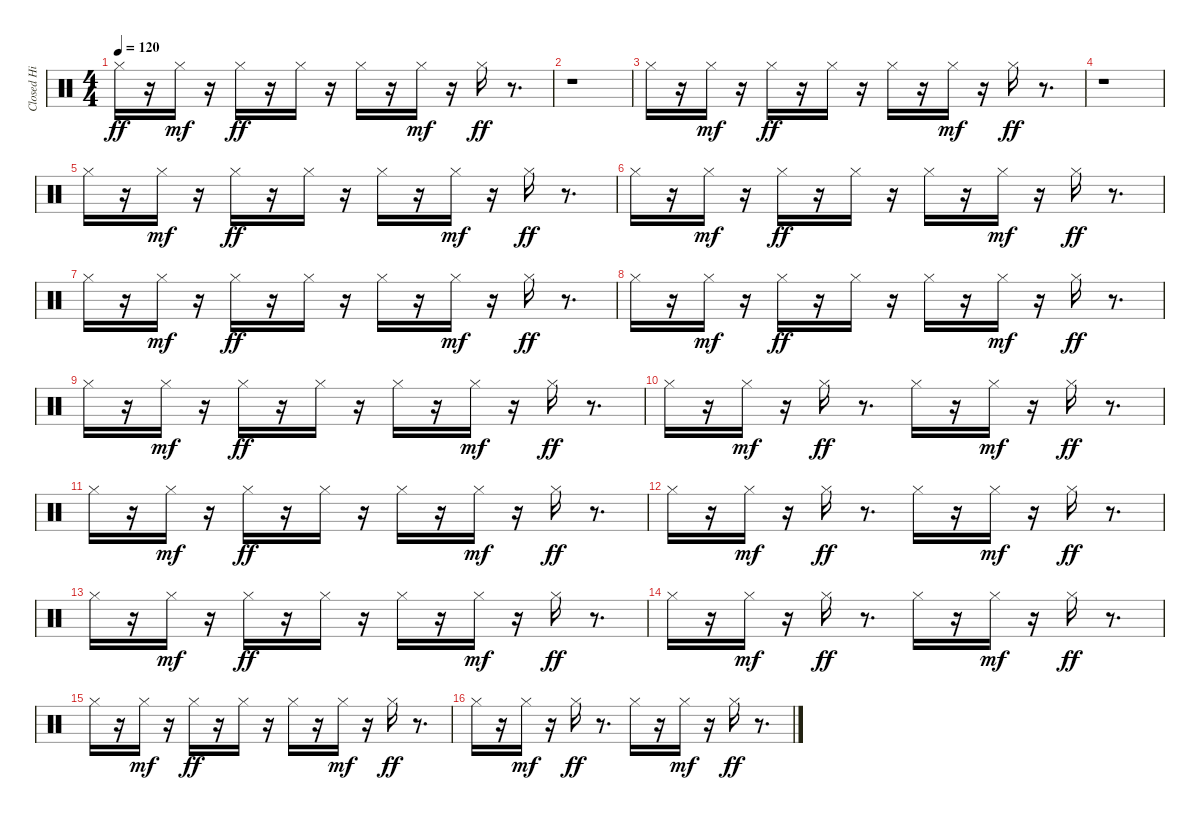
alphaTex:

\track ("Closed Hi Hat       " "Closed Hi ") {instrument percussion}
\staff {score}
\articulation defaults
\ts (4 4)
\tempo 120
\clef neutral
\ks c "Hi-Hat (closed)".16{dy ff}
r.16 "Hi-Hat (closed)".16{dy mf} r.16 "Hi-Hat (closed)".16{dy ff} r.16 "Hi-Hat (closed)".16 r.16 "Hi-Hat (closed)".16 r.16 "Hi-Hat (closed)".16{dy mf} r.16 "Hi-Hat (closed)".16{dy ff} r.8{d} |
r.1 |
"Hi-Hat (closed)".16 r.16 "Hi-Hat (closed)".16{dy mf} r.16 "Hi-Hat (closed)".16{dy ff} r.16 "Hi-Hat (closed)".16 r.16 "Hi-Hat (closed)".16 r.16 "Hi-Hat (closed)".16{dy mf} r.16 "Hi-Hat (closed)".16{dy ff} r.8{d} |
r.1 |
"Hi-Hat (closed)".16 r.16 "Hi-Hat (closed)".16{dy mf} r.16 "Hi-Hat (closed)".16{dy ff} r.16 "Hi-Hat (closed)".16 r.16 "Hi-Hat (closed)".16 r.16 "Hi-Hat (closed)".16{dy mf} r.16 "Hi-Hat (closed)".16{dy ff} r.8{d} |
"Hi-Hat (closed)".16 r.16 "Hi-Hat (closed)".16{dy mf} r.16 "Hi-Hat (closed)".16{dy ff} r.16 "Hi-Hat (closed)".16 r.16 "Hi-Hat (closed)".16 r.16 "Hi-Hat (closed)".16{dy mf} r.16 "Hi-Hat (closed)".16{dy ff} r.8{d} |
"Hi-Hat (closed)".16 r.16 "Hi-Hat (closed)".16{dy mf} r.16 "Hi-Hat (closed)".16{dy ff} r.16 "Hi-Hat (closed)".16 r.16 "Hi-Hat (closed)".16 r.16 "Hi-Hat (closed)".16{dy mf} r.16 "Hi-Hat (closed)".16{dy ff} r.8{d} |
"Hi-Hat (closed)".16 r.16 "Hi-Hat (closed)".16{dy mf} r.16 "Hi-Hat (closed)".16{dy ff} r.16 "Hi-Hat (closed)".16 r.16 "Hi-Hat (closed)".16 r.16 "Hi-Hat (closed)".16{dy mf} r.16 "Hi-Hat (closed)".16{dy ff} r.8{d} |
"Hi-Hat (closed)".16 r.16 "Hi-Hat (closed)".16{dy mf} r.16 "Hi-Hat (closed)".16{dy ff} r.16 "Hi-Hat (closed)".16 r.16 "Hi-Hat (closed)".16 r.16 "Hi-Hat (closed)".16{dy mf} r.16 "Hi-Hat (closed)".16{dy ff} r.8{d} |
"Hi-Hat (closed)".16 r.16 "Hi-Hat (closed)".16{dy mf} r.16 "Hi-Hat (closed)".16{dy ff} r.8{d} "Hi-Hat (closed)".16 r.16 "Hi-Hat (closed)".16{dy mf} r.16 "Hi-Hat (closed)".16{dy ff} r.8{d} |
"Hi-Hat (closed)".16 r.16 "Hi-Hat (closed)".16{dy mf} r.16 "Hi-Hat (closed)".16{dy ff} r.16 "Hi-Hat (closed)".16 r.16 "Hi-Hat (closed)".16 r.16 "Hi-Hat (closed)".16{dy mf} r.16 "Hi-Hat (closed)".16{dy ff} r.8{d} |
"Hi-Hat (closed)".16 r.16 "Hi-Hat (closed)".16{dy mf} r.16 "Hi-Hat (closed)".16{dy ff} r.8{d} "Hi-Hat (closed)".16 r.16 "Hi-Hat (closed)".16{dy mf} r.16 "Hi-Hat (closed)".16{dy ff} r.8{d} |
"Hi-Hat (closed)".16 r.16 "Hi-Hat (closed)".16{dy mf} r.16 "Hi-Hat (closed)".16{dy ff} r.16 "Hi-Hat (closed)".16 r.16 "Hi-Hat (closed)".16 r.16 "Hi-Hat (closed)".16{dy mf} r.16 "Hi-Hat (closed)".16{dy ff} r.8{d} |
"Hi-Hat (closed)".16 r.16 "Hi-Hat (closed)".16{dy mf} r.16 "Hi-Hat (closed)".16{dy ff} r.8{d} "Hi-Hat (closed)".16 r.16 "Hi-Hat (closed)".16{dy mf} r.16 "Hi-Hat (closed)".16{dy ff} r.8{d} |
"Hi-Hat (closed)".16 r.16 "Hi-Hat (closed)".16{dy mf} r.16 "Hi-Hat (closed)".16{dy ff} r.16 "Hi-Hat (closed)".16 r.16 "Hi-Hat (closed)".16 r.16 "Hi-Hat (closed)".16{dy mf} r.16 "Hi-Hat (closed)".16{dy ff} r.8{d} |
"Hi-Hat (closed)".16 r.16 "Hi-Hat (closed)".16{dy mf} r.16 "Hi-Hat (closed)".16{dy ff} r.8{d} "Hi-Hat (closed)".16 r.16 "Hi-Hat (closed)".16{dy mf} r.16 "Hi-Hat (closed)".16{dy ff} r.8{d}
